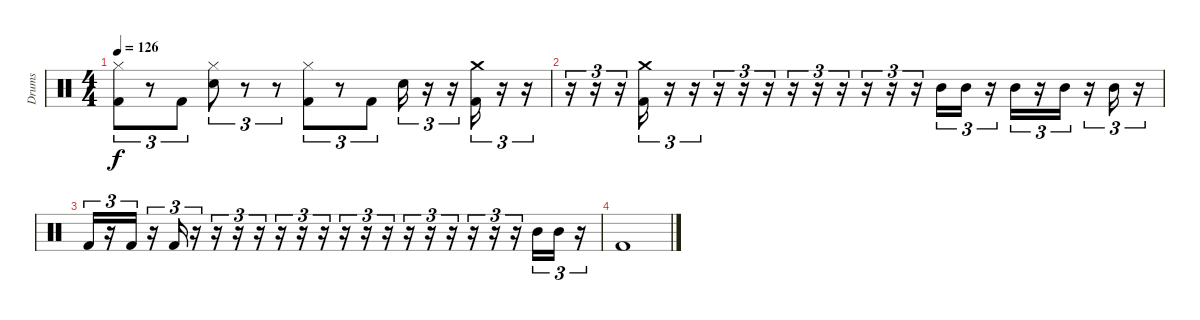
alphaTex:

\track ("Drums" "Drums") {instrument percussion}
\staff {score}
\articulation defaults
\ts (4 4)
\tempo 126
\clef neutral
\ks c
("Hi-Hat (closed)" "Kick (hit) 2").8{tu (3 2) dy f} r.8{tu (3 2)} "Kick (hit) 2".8{tu (3 2)} ("Hi-Hat (closed)" "Snare (hit) 2").8{tu (3 2)} r.8{tu (3 2)} r.8{tu (3 2)} ("Hi-Hat (closed)" "Kick (hit) 2").8{tu (3 2)} r.8{tu (3 2)} "Kick (hit) 2".8{tu (3 2)} "Snare (hit) 2".16{tu (3 2)} r.16{tu (3 2)} r.16{tu (3 2)} ("Crash medium (hit)" "Kick (hit) 2").16{tu (3 2)} r.16{tu (3 2)} r.16{tu (3 2)} |
r.16{tu (3 2)} r.16{tu (3 2)} r.16{tu (3 2)} ("Crash medium (hit)" "Kick (hit) 2").16{tu (3 2)} r.16{tu (3 2)} r.16{tu (3 2)} r.16{tu (3 2)} r.16{tu (3 2)} r.16{tu (3 2)} r.16{tu (3 2)} r.16{tu (3 2)} r.16{tu (3 2)} r.16{tu (3 2)} r.16{tu (3 2)} r.16{tu (3 2)} "Mid Tom (hit)".16{tu (3 2)} "Mid Tom (hit)".16{tu (3 2)} r.16{tu (3 2)} "Mid Tom (hit)".16{tu (3 2)} r.16{tu (3 2)} "Mid Tom (hit)".16{tu (3 2)} r.16{tu (3 2)} "Mid Tom (hit)".16{tu (3 2)} r.16{tu (3 2)} |
"Kick (hit) 2".16{tu (3 2)} r.16{tu (3 2)} "Kick (hit) 2".16{tu (3 2)} r.16{tu (3 2)} "Kick (hit) 2".16{tu (3 2)} r.16{tu (3 2)} r.16{tu (3 2)} r.16{tu (3 2)} r.16{tu (3 2)} r.16{tu (3 2)} r.16{tu (3 2)} r.16{tu (3 2)} r.16{tu (3 2)} r.16{tu (3 2)} r.16{tu (3 2)} r.16{tu (3 2)} r.16{tu (3 2)} r.16{tu (3 2)} r.16{tu (3 2)} r.16{tu (3 2)} r.16{tu (3 2)} "Mid Tom (hit)".16{tu (3 2)} "Mid Tom (hit)".16{tu (3 2)} r.16{tu (3 2)} |
"Kick (hit) 2".1
